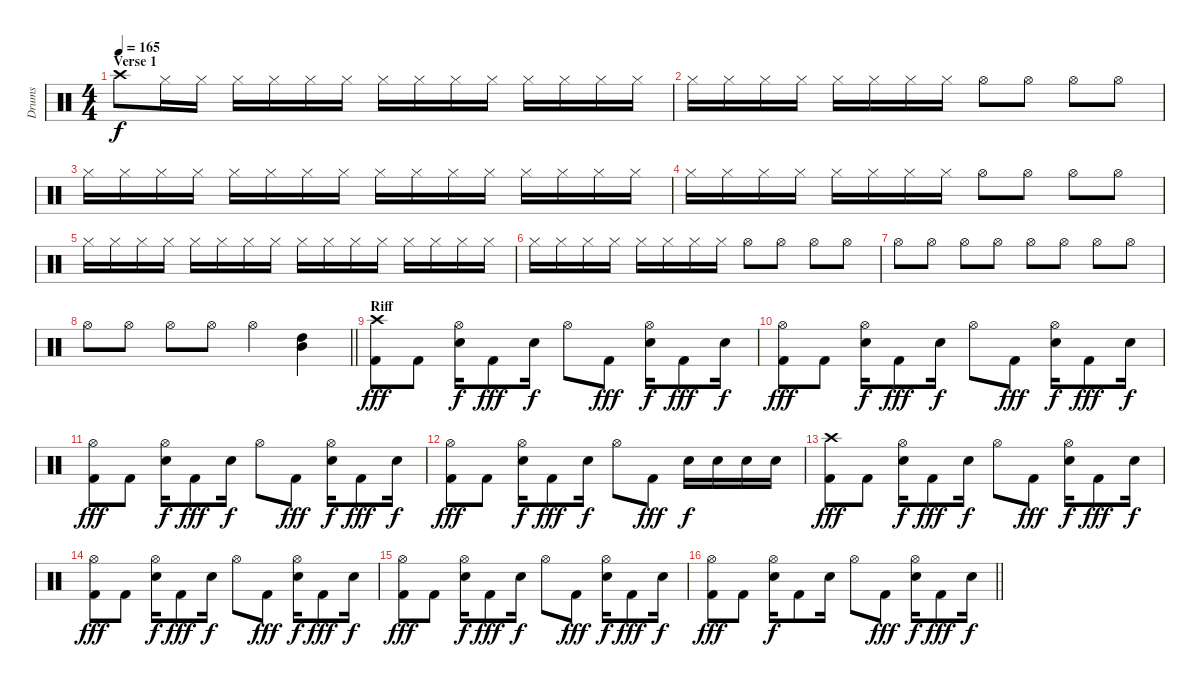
\track ("Drums" "Drums") {instrument percussion}
\staff {score}
\articulation defaults
\ts (4 4)
\section ("" "Verse 1")
\tempo 165
\clef neutral
\ks c "Crash high (hit)".8{dy f} "Hi-Hat (closed)".16 "Hi-Hat (closed)".16 "Hi-Hat (closed)".16 "Hi-Hat (closed)".16 "Hi-Hat (closed)".16 "Hi-Hat (closed)".16 "Hi-Hat (closed)".16 "Hi-Hat (closed)".16 "Hi-Hat (closed)".16 "Hi-Hat (closed)".16 "Hi-Hat (closed)".16 "Hi-Hat (closed)".16 "Hi-Hat (closed)".16 "Hi-Hat (closed)".16
|
"Hi-Hat (closed)".16 "Hi-Hat (closed)".16 "Hi-Hat (closed)".16 "Hi-Hat (closed)".16 "Hi-Hat (closed)".16 "Hi-Hat (closed)".16 "Hi-Hat (closed)".16 "Hi-Hat (closed)".16 "Hi-Hat (open)".8 "Hi-Hat (open)".8 "Hi-Hat (open)".8 "Hi-Hat (open)".8 |
"Hi-Hat (closed)".16 "Hi-Hat (closed)".16 "Hi-Hat (closed)".16 "Hi-Hat (closed)".16 "Hi-Hat (closed)".16 "Hi-Hat (closed)".16 "Hi-Hat (closed)".16 "Hi-Hat (closed)".16 "Hi-Hat (closed)".16 "Hi-Hat (closed)".16 "Hi-Hat (closed)".16 "Hi-Hat (closed)".16 "Hi-Hat (closed)".16 "Hi-Hat (closed)".16 "Hi-Hat (closed)".16 "Hi-Hat (closed)".16 |
"Hi-Hat (closed)".16 "Hi-Hat (closed)".16 "Hi-Hat (closed)".16 "Hi-Hat (closed)".16 "Hi-Hat (closed)".16 "Hi-Hat (closed)".16 "Hi-Hat (closed)".16 "Hi-Hat (closed)".16 "Hi-Hat (open)".8 "Hi-Hat (open)".8 "Hi-Hat (open)".8 "Hi-Hat (open)".8 |
"Hi-Hat (closed)".16 "Hi-Hat (closed)".16 "Hi-Hat (closed)".16 "Hi-Hat (closed)".16 "Hi-Hat (closed)".16 "Hi-Hat (closed)".16 "Hi-Hat (closed)".16 "Hi-Hat (closed)".16 "Hi-Hat (closed)".16 "Hi-Hat (closed)".16 "Hi-Hat (closed)".16 "Hi-Hat (closed)".16 "Hi-Hat (closed)".16 "Hi-Hat (closed)".16 "Hi-Hat (closed)".16 "Hi-Hat (closed)".16 |
"Hi-Hat (closed)".16 "Hi-Hat (closed)".16 "Hi-Hat (closed)".16 "Hi-Hat (closed)".16 "Hi-Hat (closed)".16 "Hi-Hat (closed)".16 "Hi-Hat (closed)".16 "Hi-Hat (closed)".16 "Hi-Hat (open)".8 "Hi-Hat (open)".8 "Hi-Hat (open)".8 "Hi-Hat (open)".8 |
"Hi-Hat (open)".8 "Hi-Hat (open)".8 "Hi-Hat (open)".8 "Hi-Hat (open)".8 "Hi-Hat (open)".8 "Hi-Hat (open)".8 "Hi-Hat (open)".8 "Hi-Hat (open)".8 |
\barLineRight lightlight "Hi-Hat (open)".8 "Hi-Hat (open)".8 "Hi-Hat (open)".8 "Hi-Hat (open)".8 "Hi-Hat (open)".4
("Mid Tom (hit)" "High Tom (hit)").4 |
\section ("" "Riff")
("Crash high (hit)" "Kick (hit) 2").8{dy fff} "Kick (hit) 2".8 ("Hi-Hat (open)" "Snare (hit) 2").16{dy f} "Kick (hit) 2".8{dy fff} "Snare (hit) 2".16{dy f} "Hi-Hat (open)".8 "Kick (hit) 2".8{dy fff} ("Hi-Hat (open)" "Snare (hit) 2").16{dy f} "Kick (hit) 2".8{dy fff} "Snare (hit) 2".16{dy f} |
("Hi-Hat (open)" "Kick (hit) 2").8{dy fff} "Kick (hit) 2".8 ("Hi-Hat (open)" "Snare (hit) 2").16{dy f} "Kick (hit) 2".8{dy fff} "Snare (hit) 2".16{dy f} "Hi-Hat (open)".8 "Kick (hit) 2".8{dy fff} ("Hi-Hat (open)" "Snare (hit) 2").16{dy f} "Kick (hit) 2".8{dy fff} "Snare (hit) 2".16{dy f} |
("Hi-Hat (open)" "Kick (hit) 2").8{dy fff} "Kick (hit) 2".8 ("Hi-Hat (open)" "Snare (hit) 2").16{dy f} "Kick (hit) 2".8{dy fff} "Snare (hit) 2".16{dy f} "Hi-Hat (open)".8 "Kick (hit) 2".8{dy fff} ("Hi-Hat (open)" "Snare (hit) 2").16{dy f} "Kick (hit) 2".8{dy fff} "Snare (hit) 2".16{dy f} |
("Hi-Hat (open)" "Kick (hit) 2").8{dy fff} "Kick (hit) 2".8 ("Hi-Hat (open)" "Snare (hit) 2").16{dy f} "Kick (hit) 2".8{dy fff} "Snare (hit) 2".16{dy f} "Hi-Hat (open)".8 "Kick (hit) 2".8{dy fff} "Snare (hit) 2".16{dy f} "Snare (hit) 2".16 "Snare (hit) 2".16 "Snare (hit) 2".16 |
("Crash high (hit)" "Kick (hit) 2").8{dy fff} "Kick (hit) 2".8 ("Hi-Hat (open)" "Snare (hit) 2").16{dy f} "Kick (hit) 2".8{dy fff} "Snare (hit) 2".16{dy f} "Hi-Hat (open)".8 "Kick (hit) 2".8{dy fff} ("Hi-Hat (open)" "Snare (hit) 2").16{dy f} "Kick (hit) 2".8{dy fff} "Snare (hit) 2".16{dy f} |
("Hi-Hat (open)" "Kick (hit) 2").8{dy fff} "Kick (hit) 2".8 ("Hi-Hat (open)" "Snare (hit) 2").16{dy f} "Kick (hit) 2".8{dy fff} "Snare (hit) 2".16{dy f} "Hi-Hat (open)".8 "Kick (hit) 2".8{dy fff} ("Hi-Hat (open)" "Snare (hit) 2").16{dy f} "Kick (hit) 2".8{dy fff} "Snare (hit) 2".16{dy f} |
("Hi-Hat (open)" "Kick (hit) 2").8{dy fff} "Kick (hit) 2".8 ("Hi-Hat (open)" "Snare (hit) 2").16{dy f} "Kick (hit) 2".8{dy fff} "Snare (hit) 2".16{dy f} "Hi-Hat (open)".8 "Kick (hit) 2".8{dy fff} ("Hi-Hat (open)" "Snare (hit) 2").16{dy f} "Kick (hit) 2".8{dy fff} "Snare (hit) 2".16{dy f} |
\barLineRight lightlight
("Hi-Hat (open)" "Kick (hit) 2").8{dy fff} "Kick (hit) 2".8 ("Hi-Hat (open)" "Snare (hit) 2").16{dy f} "Kick (hit) 2".8 "Snare (hit) 2".16 "Hi-Hat (open)".8 "Kick (hit) 2".8{dy fff} ("Hi-Hat (open)" "Snare (hit) 2").16{dy f} "Kick (hit) 2".8{dy fff} "Snare (hit) 2".16{dy f}
